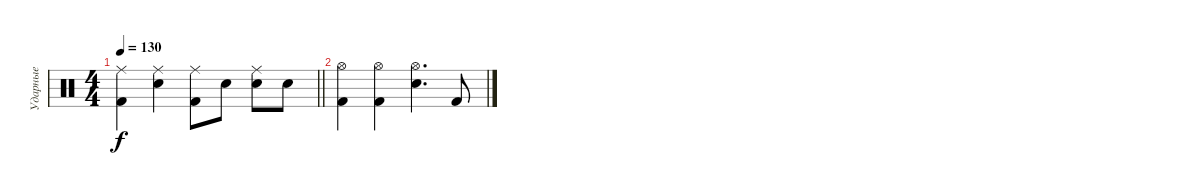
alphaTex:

\track ("Ударные" "Ударные") {instrument percussion}
\staff {score}
\articulation defaults
\ts (4 4)
\tempo 130
\clef neutral
\barLineRight lightlight
\ks c
("Ride (middle)" "Kick (hit) 2").4{dy f} ("Ride (middle)" "Snare (hit) 2").4 ("Ride (middle)" "Kick (hit) 2").8 "Snare (hit) 2".8 ("Ride (middle)" "Snare (hit) 2").8 "Snare (hit) 2".8 |
("Hi-Hat (open)" "Kick (hit) 2").4 ("Hi-Hat (open)" "Kick (hit) 2").4 ("Hi-Hat (open)" "Snare (hit) 2").4{d} "Kick (hit) 2".8
